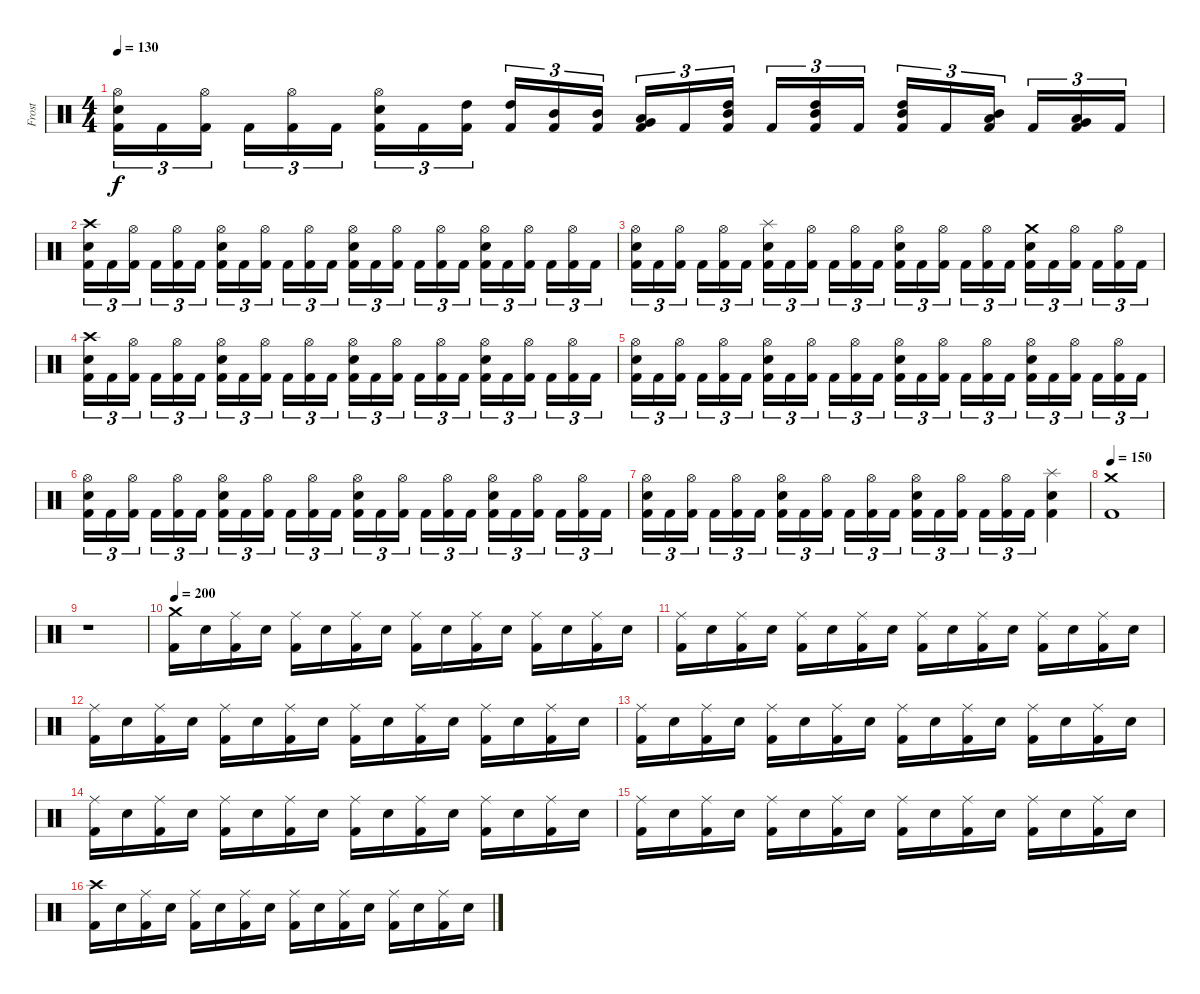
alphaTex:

\track ("Frost" "Frost") {instrument percussion}
\staff {score}
\articulation defaults
\ts (4 4)
\tempo 130
\clef neutral
\ks c
("Hi-Hat (open)" "Electric Snare (hit)" "Kick (hit) 2").16{tu (3 2) dy f} "Kick (hit) 2".16{tu (3 2)} ("Hi-Hat (open)" "Kick (hit) 2").16{tu (3 2)} "Kick (hit) 2".16{tu (3 2)} ("Hi-Hat (open)" "Kick (hit) 2").16{tu (3 2)} "Kick (hit) 2".16{tu (3 2)} ("Hi-Hat (open)" "Electric Snare (hit)" "Kick (hit) 2").16{tu (3 2)} "Kick (hit) 2".16{tu (3 2)} ("High Tom (hit)" "Kick (hit) 2").16{tu (3 2)} ("High Tom (hit)" "Kick (hit) 2").16{tu (3 2)} ("Mid Tom (hit)" "Kick (hit) 2").16{tu (3 2)} ("Mid Tom (hit)" "Kick (hit) 2").16{tu (3 2)} ("Low Tom (hit)" "Very Low Tom (hit)" "Kick (hit) 2").16{tu (3 2)} "Kick (hit) 2".16{tu (3 2)} ("High Tom (hit)" "Mid Tom (hit)" "Kick (hit) 2").16{tu (3 2)} "Kick (hit) 2".16{tu (3 2)} ("High Tom (hit)" "Mid Tom (hit)" "Kick (hit) 2").16{tu (3 2)} "Kick (hit) 2".16{tu (3 2)} ("High Tom (hit)" "Mid Tom (hit)" "Kick (hit) 2").16{tu (3 2)} "Kick (hit) 2".16{tu (3 2)} ("Mid Tom (hit)" "Low Tom (hit)" "Kick (hit) 2").16{tu (3 2)} "Kick (hit) 2".16{tu (3 2)} ("Low Tom (hit)" "Very Low Tom (hit)" "Kick (hit) 2").16{tu (3 2)} "Kick (hit) 2".16{tu (3 2)} |
("Crash high (hit)" "Electric Snare (hit)" "Kick (hit) 2").16{tu (3 2)} "Kick (hit) 2".16{tu (3 2)} ("Hi-Hat (open)" "Kick (hit) 2").16{tu (3 2)} "Kick (hit) 2".16{tu (3 2)} ("Hi-Hat (open)" "Kick (hit) 2").16{tu (3 2)} "Kick (hit) 2".16{tu (3 2)} ("Hi-Hat (open)" "Electric Snare (hit)" "Kick (hit) 2").16{tu (3 2)} "Kick (hit) 2".16{tu (3 2)} ("Hi-Hat (open)" "Kick (hit) 2").16{tu (3 2)} "Kick (hit) 2".16{tu (3 2)} ("Hi-Hat (open)" "Kick (hit) 2").16{tu (3 2)} "Kick (hit) 2".16{tu (3 2)} ("Hi-Hat (open)" "Electric Snare (hit)" "Kick (hit) 2").16{tu (3 2)} "Kick (hit) 2".16{tu (3 2)} ("Hi-Hat (open)" "Kick (hit) 2").16{tu (3 2)} "Kick (hit) 2".16{tu (3 2)} ("Hi-Hat (open)" "Kick (hit) 2").16{tu (3 2)} "Kick (hit) 2".16{tu (3 2)} ("Hi-Hat (open)" "Electric Snare (hit)" "Kick (hit) 2").16{tu (3 2)} "Kick (hit) 2".16{tu (3 2)} ("Hi-Hat (open)" "Kick (hit) 2").16{tu (3 2)} "Kick (hit) 2".16{tu (3 2)} ("Hi-Hat (open)" "Kick (hit) 2").16{tu (3 2)} "Kick (hit) 2".16{tu (3 2)} |
("Hi-Hat (open)" "Electric Snare (hit)" "Kick (hit) 2").16{tu (3 2)} "Kick (hit) 2".16{tu (3 2)} ("Hi-Hat (open)" "Kick (hit) 2").16{tu (3 2)} "Kick (hit) 2".16{tu (3 2)} ("Hi-Hat (open)" "Kick (hit) 2").16{tu (3 2)} "Kick (hit) 2".16{tu (3 2)} ("Splash (hit)" "Electric Snare (hit)" "Kick (hit) 2").16{tu (3 2)} "Kick (hit) 2".16{tu (3 2)} ("Hi-Hat (open)" "Kick (hit) 2").16{tu (3 2)} "Kick (hit) 2".16{tu (3 2)} ("Hi-Hat (open)" "Kick (hit) 2").16{tu (3 2)} "Kick (hit) 2".16{tu (3 2)} ("Hi-Hat (open)" "Electric Snare (hit)" "Kick (hit) 2").16{tu (3 2)} "Kick (hit) 2".16{tu (3 2)} ("Hi-Hat (open)" "Kick (hit) 2").16{tu (3 2)} "Kick (hit) 2".16{tu (3 2)} ("Hi-Hat (open)" "Kick (hit) 2").16{tu (3 2)} "Kick (hit) 2".16{tu (3 2)} ("Crash medium (hit)" "Electric Snare (hit)" "Kick (hit) 2").16{tu (3 2)} "Kick (hit) 2".16{tu (3 2)} ("Hi-Hat (open)" "Kick (hit) 2").16{tu (3 2)} "Kick (hit) 2".16{tu (3 2)} ("Hi-Hat (open)" "Kick (hit) 2").16{tu (3 2)} "Kick (hit) 2".16{tu (3 2)} |
("Crash high (hit)" "Electric Snare (hit)" "Kick (hit) 2").16{tu (3 2)} "Kick (hit) 2".16{tu (3 2)} ("Hi-Hat (open)" "Kick (hit) 2").16{tu (3 2)} "Kick (hit) 2".16{tu (3 2)} ("Hi-Hat (open)" "Kick (hit) 2").16{tu (3 2)} "Kick (hit) 2".16{tu (3 2)} ("Hi-Hat (open)" "Electric Snare (hit)" "Kick (hit) 2").16{tu (3 2)} "Kick (hit) 2".16{tu (3 2)} ("Hi-Hat (open)" "Kick (hit) 2").16{tu (3 2)} "Kick (hit) 2".16{tu (3 2)} ("Hi-Hat (open)" "Kick (hit) 2").16{tu (3 2)} "Kick (hit) 2".16{tu (3 2)} ("Hi-Hat (open)" "Electric Snare (hit)" "Kick (hit) 2").16{tu (3 2)} "Kick (hit) 2".16{tu (3 2)} ("Hi-Hat (open)" "Kick (hit) 2").16{tu (3 2)} "Kick (hit) 2".16{tu (3 2)} ("Hi-Hat (open)" "Kick (hit) 2").16{tu (3 2)} "Kick (hit) 2".16{tu (3 2)} ("Hi-Hat (open)" "Electric Snare (hit)" "Kick (hit) 2").16{tu (3 2)} "Kick (hit) 2".16{tu (3 2)} ("Hi-Hat (open)" "Kick (hit) 2").16{tu (3 2)} "Kick (hit) 2".16{tu (3 2)} ("Hi-Hat (open)" "Kick (hit) 2").16{tu (3 2)} "Kick (hit) 2".16{tu (3 2)} |
("Hi-Hat (open)" "Electric Snare (hit)" "Kick (hit) 2").16{tu (3 2)} "Kick (hit) 2".16{tu (3 2)} ("Hi-Hat (open)" "Kick (hit) 2").16{tu (3 2)} "Kick (hit) 2".16{tu (3 2)} ("Hi-Hat (open)" "Kick (hit) 2").16{tu (3 2)} "Kick (hit) 2".16{tu (3 2)} ("Hi-Hat (open)" "Electric Snare (hit)" "Kick (hit) 2").16{tu (3 2)} "Kick (hit) 2".16{tu (3 2)} ("Hi-Hat (open)" "Kick (hit) 2").16{tu (3 2)} "Kick (hit) 2".16{tu (3 2)} ("Hi-Hat (open)" "Kick (hit) 2").16{tu (3 2)} "Kick (hit) 2".16{tu (3 2)} ("Hi-Hat (open)" "Electric Snare (hit)" "Kick (hit) 2").16{tu (3 2)} "Kick (hit) 2".16{tu (3 2)} ("Hi-Hat (open)" "Kick (hit) 2").16{tu (3 2)} "Kick (hit) 2".16{tu (3 2)} ("Hi-Hat (open)" "Kick (hit) 2").16{tu (3 2)} "Kick (hit) 2".16{tu (3 2)} ("Hi-Hat (open)" "Electric Snare (hit)" "Kick (hit) 2").16{tu (3 2)} "Kick (hit) 2".16{tu (3 2)} ("Hi-Hat (open)" "Kick (hit) 2").16{tu (3 2)} "Kick (hit) 2".16{tu (3 2)} ("Hi-Hat (open)" "Kick (hit) 2").16{tu (3 2)} "Kick (hit) 2".16{tu (3 2)} |
("Hi-Hat (open)" "Electric Snare (hit)" "Kick (hit) 2").16{tu (3 2)} "Kick (hit) 2".16{tu (3 2)} ("Hi-Hat (open)" "Kick (hit) 2").16{tu (3 2)} "Kick (hit) 2".16{tu (3 2)} ("Hi-Hat (open)" "Kick (hit) 2").16{tu (3 2)} "Kick (hit) 2".16{tu (3 2)} ("Hi-Hat (open)" "Electric Snare (hit)" "Kick (hit) 2").16{tu (3 2)} "Kick (hit) 2".16{tu (3 2)} ("Hi-Hat (open)" "Kick (hit) 2").16{tu (3 2)} "Kick (hit) 2".16{tu (3 2)} ("Hi-Hat (open)" "Kick (hit) 2").16{tu (3 2)} "Kick (hit) 2".16{tu (3 2)} ("Hi-Hat (open)" "Electric Snare (hit)" "Kick (hit) 2").16{tu (3 2)} "Kick (hit) 2".16{tu (3 2)} ("Hi-Hat (open)" "Kick (hit) 2").16{tu (3 2)} "Kick (hit) 2".16{tu (3 2)} ("Hi-Hat (open)" "Kick (hit) 2").16{tu (3 2)} "Kick (hit) 2".16{tu (3 2)} ("Hi-Hat (open)" "Electric Snare (hit)" "Kick (hit) 2").16{tu (3 2)} "Kick (hit) 2".16{tu (3 2)} ("Hi-Hat (open)" "Kick (hit) 2").16{tu (3 2)} "Kick (hit) 2".16{tu (3 2)} ("Hi-Hat (open)" "Kick (hit) 2").16{tu (3 2)} "Kick (hit) 2".16{tu (3 2)} |
("Hi-Hat (open)" "Electric Snare (hit)" "Kick (hit) 2").16{tu (3 2)} "Kick (hit) 2".16{tu (3 2)} ("Hi-Hat (open)" "Kick (hit) 2").16{tu (3 2)} "Kick (hit) 2".16{tu (3 2)} ("Hi-Hat (open)" "Kick (hit) 2").16{tu (3 2)} "Kick (hit) 2".16{tu (3 2)} ("Hi-Hat (open)" "Electric Snare (hit)" "Kick (hit) 2").16{tu (3 2)} "Kick (hit) 2".16{tu (3 2)} ("Hi-Hat (open)" "Kick (hit) 2").16{tu (3 2)} "Kick (hit) 2".16{tu (3 2)} ("Hi-Hat (open)" "Kick (hit) 2").16{tu (3 2)} "Kick (hit) 2".16{tu (3 2)} ("Hi-Hat (open)" "Electric Snare (hit)" "Kick (hit) 2").16{tu (3 2)} "Kick (hit) 2".16{tu (3 2)} ("Hi-Hat (open)" "Kick (hit) 2").16{tu (3 2)} "Kick (hit) 2".16{tu (3 2)} ("Hi-Hat (open)" "Kick (hit) 2").16{tu (3 2)} "Kick (hit) 2".16{tu (3 2)} ("Splash (hit)" "Electric Snare (hit)" "Kick (hit) 2").4 |
\tempo 150
("Crash medium (hit)" "Kick (hit) 2").1 |
r.1 |
\tempo 200
("Crash medium (hit)" "Kick (hit) 2").16 "Electric Snare (hit)".16 ("Ride (middle)" "Kick (hit) 2").16 "Electric Snare (hit)".16 ("Ride (middle)" "Kick (hit) 2").16 "Electric Snare (hit)".16 ("Ride (middle)" "Kick (hit) 2").16 "Electric Snare (hit)".16 ("Ride (middle)" "Kick (hit) 2").16 "Electric Snare (hit)".16 ("Ride (middle)" "Kick (hit) 2").16 "Electric Snare (hit)".16 ("Ride (middle)" "Kick (hit) 2").16 "Electric Snare (hit)".16 ("Ride (middle)" "Kick (hit) 2").16 "Electric Snare (hit)".16 |
("Ride (middle)" "Kick (hit) 2").16 "Electric Snare (hit)".16 ("Ride (middle)" "Kick (hit) 2").16 "Electric Snare (hit)".16 ("Ride (middle)" "Kick (hit) 2").16 "Electric Snare (hit)".16 ("Ride (middle)" "Kick (hit) 2").16 "Electric Snare (hit)".16 ("Ride (middle)" "Kick (hit) 2").16 "Electric Snare (hit)".16 ("Ride (middle)" "Kick (hit) 2").16 "Electric Snare (hit)".16 ("Ride (middle)" "Kick (hit) 2").16 "Electric Snare (hit)".16 ("Ride (middle)" "Kick (hit) 2").16 "Electric Snare (hit)".16 |
("Ride (middle)" "Kick (hit) 2").16 "Electric Snare (hit)".16 ("Ride (middle)" "Kick (hit) 2").16 "Electric Snare (hit)".16 ("Ride (middle)" "Kick (hit) 2").16 "Electric Snare (hit)".16 ("Ride (middle)" "Kick (hit) 2").16 "Electric Snare (hit)".16 ("Ride (middle)" "Kick (hit) 2").16 "Electric Snare (hit)".16 ("Ride (middle)" "Kick (hit) 2").16 "Electric Snare (hit)".16 ("Ride (middle)" "Kick (hit) 2").16 "Electric Snare (hit)".16 ("Ride (middle)" "Kick (hit) 2").16 "Electric Snare (hit)".16 |
("Ride (middle)" "Kick (hit) 2").16 "Electric Snare (hit)".16 ("Ride (middle)" "Kick (hit) 2").16 "Electric Snare (hit)".16 ("Ride (middle)" "Kick (hit) 2").16 "Electric Snare (hit)".16 ("Ride (middle)" "Kick (hit) 2").16 "Electric Snare (hit)".16 ("Ride (middle)" "Kick (hit) 2").16 "Electric Snare (hit)".16 ("Ride (middle)" "Kick (hit) 2").16 "Electric Snare (hit)".16 ("Ride (middle)" "Kick (hit) 2").16 "Electric Snare (hit)".16 ("Ride (middle)" "Kick (hit) 2").16 "Electric Snare (hit)".16 |
("Ride (middle)" "Kick (hit) 2").16 "Electric Snare (hit)".16 ("Ride (middle)" "Kick (hit) 2").16 "Electric Snare (hit)".16 ("Ride (middle)" "Kick (hit) 2").16 "Electric Snare (hit)".16 ("Ride (middle)" "Kick (hit) 2").16 "Electric Snare (hit)".16 ("Ride (middle)" "Kick (hit) 2").16 "Electric Snare (hit)".16 ("Ride (middle)" "Kick (hit) 2").16 "Electric Snare (hit)".16 ("Ride (middle)" "Kick (hit) 2").16 "Electric Snare (hit)".16 ("Ride (middle)" "Kick (hit) 2").16 "Electric Snare (hit)".16 |
("Ride (middle)" "Kick (hit) 2").16 "Electric Snare (hit)".16 ("Ride (middle)" "Kick (hit) 2").16 "Electric Snare (hit)".16 ("Ride (middle)" "Kick (hit) 2").16 "Electric Snare (hit)".16 ("Ride (middle)" "Kick (hit) 2").16 "Electric Snare (hit)".16 ("Ride (middle)" "Kick (hit) 2").16 "Electric Snare (hit)".16 ("Ride (middle)" "Kick (hit) 2").16 "Electric Snare (hit)".16 ("Ride (middle)" "Kick (hit) 2").16 "Electric Snare (hit)".16 ("Ride (middle)" "Kick (hit) 2").16 "Electric Snare (hit)".16 |
("Crash high (hit)" "Kick (hit) 2").16 "Electric Snare (hit)".16 ("Ride (middle)" "Kick (hit) 2").16 "Electric Snare (hit)".16 ("Ride (middle)" "Kick (hit) 2").16 "Electric Snare (hit)".16 ("Ride (middle)" "Kick (hit) 2").16 "Electric Snare (hit)".16 ("Ride (middle)" "Kick (hit) 2").16 "Electric Snare (hit)".16 ("Ride (middle)" "Kick (hit) 2").16 "Electric Snare (hit)".16 ("Ride (middle)" "Kick (hit) 2").16 "Electric Snare (hit)".16 ("Ride (middle)" "Kick (hit) 2").16 "Electric Snare (hit)".16
